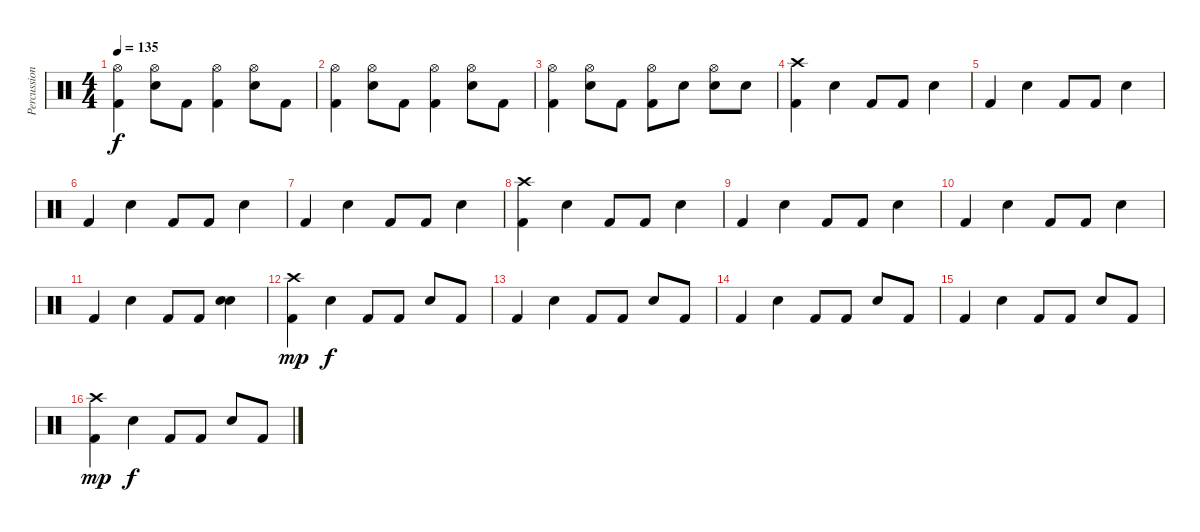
\track ("Percussion" "Percussion") {instrument percussion}
\staff {score}
\articulation defaults
\ts (4 4)
\tempo 135
\clef neutral
\ks c
("Hi-Hat (open)" "Kick (hit) 2").4{dy f} ("Hi-Hat (open)" "Snare (hit) 2").8 "Kick (hit) 2".8 ("Hi-Hat (open)" "Kick (hit) 2").4 ("Hi-Hat (open)" "Snare (hit) 2").8 "Kick (hit) 2".8 |
("Hi-Hat (open)" "Kick (hit) 2").4 ("Hi-Hat (open)" "Snare (hit) 2").8 "Kick (hit) 2".8 ("Hi-Hat (open)" "Kick (hit) 2").4 ("Hi-Hat (open)" "Snare (hit) 2").8 "Kick (hit) 2".8 |
("Hi-Hat (open)" "Kick (hit) 2").4 ("Hi-Hat (open)" "Snare (hit) 2").8 "Kick (hit) 2".8 ("Hi-Hat (open)" "Kick (hit) 2").8 "Snare (hit) 2".8 ("Hi-Hat (open)" "Snare (hit) 2").8 "Snare (hit) 2".8 |
("Crash high (hit)" "Kick (hit) 2").4 "Electric Snare (hit)".4 "Kick (hit) 2".8 "Kick (hit) 2".8 "Electric Snare (hit)".4 |
"Kick (hit) 2".4 "Electric Snare (hit)".4 "Kick (hit) 2".8 "Kick (hit) 2".8 "Electric Snare (hit)".4 |
"Kick (hit) 2".4 "Electric Snare (hit)".4 "Kick (hit) 2".8 "Kick (hit) 2".8 "Electric Snare (hit)".4 |
"Kick (hit) 2".4 "Electric Snare (hit)".4 "Kick (hit) 2".8 "Kick (hit) 2".8 "Electric Snare (hit)".4 |
("Crash high (hit)" "Kick (hit) 2").4 "Electric Snare (hit)".4 "Kick (hit) 2".8 "Kick (hit) 2".8 "Electric Snare (hit)".4 |
"Kick (hit) 2".4 "Electric Snare (hit)".4 "Kick (hit) 2".8 "Kick (hit) 2".8 "Electric Snare (hit)".4 |
"Kick (hit) 2".4 "Electric Snare (hit)".4 "Kick (hit) 2".8 "Kick (hit) 2".8 "Electric Snare (hit)".4 |
"Kick (hit) 2".4 "Electric Snare (hit)".4 "Kick (hit) 2".8 "Kick (hit) 2".8 ("Electric Snare (hit)" "Electric Snare (hit)").4{bd 120} |
("Crash high (hit)" "Kick (hit) 2").4{dy mp} "Electric Snare (hit)".4{dy f} "Kick (hit) 2".8 "Kick (hit) 2".8 "Electric Snare (hit)".8 "Kick (hit) 2".8 |
"Kick (hit) 2".4 "Electric Snare (hit)".4 "Kick (hit) 2".8 "Kick (hit) 2".8 "Electric Snare (hit)".8 "Kick (hit) 2".8 |
"Kick (hit) 2".4 "Electric Snare (hit)".4 "Kick (hit) 2".8 "Kick (hit) 2".8 "Electric Snare (hit)".8 "Kick (hit) 2".8 |
"Kick (hit) 2".4 "Electric Snare (hit)".4 "Kick (hit) 2".8 "Kick (hit) 2".8 "Electric Snare (hit)".8 "Kick (hit) 2".8 |
("Crash high (hit)" "Kick (hit) 2").4{dy mp} "Electric Snare (hit)".4{dy f} "Kick (hit) 2".8 "Kick (hit) 2".8 "Electric Snare (hit)".8 "Kick (hit) 2".8
